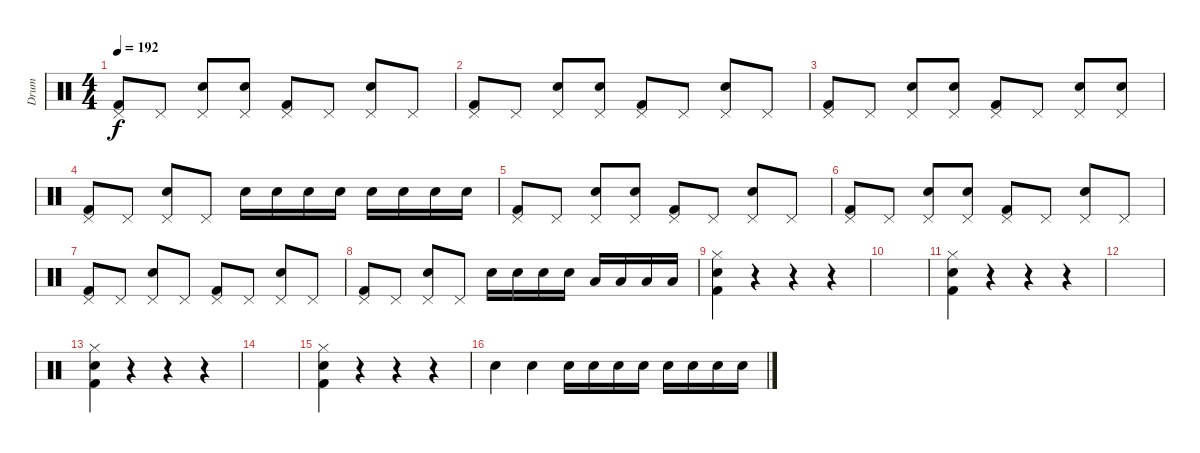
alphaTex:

\track ("Drum" "Drum") {instrument percussion}
\staff {score}
\articulation defaults
\ts (4 4)
\tempo 192
\clef neutral
\ks c
("Pedal Hi-Hat (hit)" "Kick (hit) 2").8{dy f} "Pedal Hi-Hat (hit)".8 ("Pedal Hi-Hat (hit)" "Electric Snare (hit)").8 ("Pedal Hi-Hat (hit)" "Electric Snare (hit)").8 ("Pedal Hi-Hat (hit)" "Kick (hit) 2").8 "Pedal Hi-Hat (hit)".8 ("Pedal Hi-Hat (hit)" "Electric Snare (hit)").8 "Pedal Hi-Hat (hit)".8 |
("Pedal Hi-Hat (hit)" "Kick (hit) 2").8 "Pedal Hi-Hat (hit)".8 ("Pedal Hi-Hat (hit)" "Electric Snare (hit)").8 ("Pedal Hi-Hat (hit)" "Electric Snare (hit)").8 ("Pedal Hi-Hat (hit)" "Kick (hit) 2").8 "Pedal Hi-Hat (hit)".8 ("Pedal Hi-Hat (hit)" "Electric Snare (hit)").8 "Pedal Hi-Hat (hit)".8 |
("Pedal Hi-Hat (hit)" "Kick (hit) 2").8 "Pedal Hi-Hat (hit)".8 ("Pedal Hi-Hat (hit)" "Electric Snare (hit)").8 ("Pedal Hi-Hat (hit)" "Electric Snare (hit)").8 ("Pedal Hi-Hat (hit)" "Kick (hit) 2").8 "Pedal Hi-Hat (hit)".8 ("Pedal Hi-Hat (hit)" "Electric Snare (hit)").8 ("Pedal Hi-Hat (hit)" "Electric Snare (hit)").8 |
("Pedal Hi-Hat (hit)" "Kick (hit) 2").8 "Pedal Hi-Hat (hit)".8 ("Pedal Hi-Hat (hit)" "Electric Snare (hit)").8 "Pedal Hi-Hat (hit)".8 "Electric Snare (hit)".16 "Electric Snare (hit)".16 "Electric Snare (hit)".16 "Electric Snare (hit)".16 "Electric Snare (hit)".16 "Electric Snare (hit)".16 "Electric Snare (hit)".16 "Electric Snare (hit)".16 |
("Pedal Hi-Hat (hit)" "Kick (hit) 2").8 "Pedal Hi-Hat (hit)".8 ("Pedal Hi-Hat (hit)" "Electric Snare (hit)").8 ("Pedal Hi-Hat (hit)" "Electric Snare (hit)").8 ("Pedal Hi-Hat (hit)" "Kick (hit) 2").8 "Pedal Hi-Hat (hit)".8 ("Pedal Hi-Hat (hit)" "Electric Snare (hit)").8 "Pedal Hi-Hat (hit)".8 |
("Pedal Hi-Hat (hit)" "Kick (hit) 2").8 "Pedal Hi-Hat (hit)".8 ("Pedal Hi-Hat (hit)" "Electric Snare (hit)").8 ("Pedal Hi-Hat (hit)" "Electric Snare (hit)").8 ("Pedal Hi-Hat (hit)" "Kick (hit) 2").8 "Pedal Hi-Hat (hit)".8 ("Pedal Hi-Hat (hit)" "Electric Snare (hit)").8 "Pedal Hi-Hat (hit)".8 |
("Pedal Hi-Hat (hit)" "Kick (hit) 2").8 "Pedal Hi-Hat (hit)".8 ("Pedal Hi-Hat (hit)" "Electric Snare (hit)").8 "Pedal Hi-Hat (hit)".8 ("Pedal Hi-Hat (hit)" "Kick (hit) 2").8 "Pedal Hi-Hat (hit)".8 ("Pedal Hi-Hat (hit)" "Electric Snare (hit)").8 "Pedal Hi-Hat (hit)".8 |
("Pedal Hi-Hat (hit)" "Kick (hit) 2").8 "Pedal Hi-Hat (hit)".8 ("Pedal Hi-Hat (hit)" "Electric Snare (hit)").8 "Pedal Hi-Hat (hit)".8 "Electric Snare (hit)".16 "Electric Snare (hit)".16 "Electric Snare (hit)".16 "Electric Snare (hit)".16 "Low Tom (hit)".16 "Low Tom (hit)".16 "Low Tom (hit)".16 "Low Tom (hit)".16 |
("Hi-Hat (closed)" "Electric Snare (hit)" "Kick (hit) 2").4 r.4 r.4 r.4 |
|
("Hi-Hat (closed)" "Electric Snare (hit)" "Kick (hit) 2").4 r.4 r.4 r.4 |
|
("Hi-Hat (closed)" "Electric Snare (hit)" "Kick (hit) 2").4 r.4 r.4 r.4 |
|
("Hi-Hat (closed)" "Electric Snare (hit)" "Kick (hit) 2").4 r.4 r.4 r.4 |
"Electric Snare (hit)".4 "Electric Snare (hit)".4 "Electric Snare (hit)".16 "Electric Snare (hit)".16 "Electric Snare (hit)".16 "Electric Snare (hit)".16 "Electric Snare (hit)".16 "Electric Snare (hit)".16 "Electric Snare (hit)".16 "Electric Snare (hit)".16
